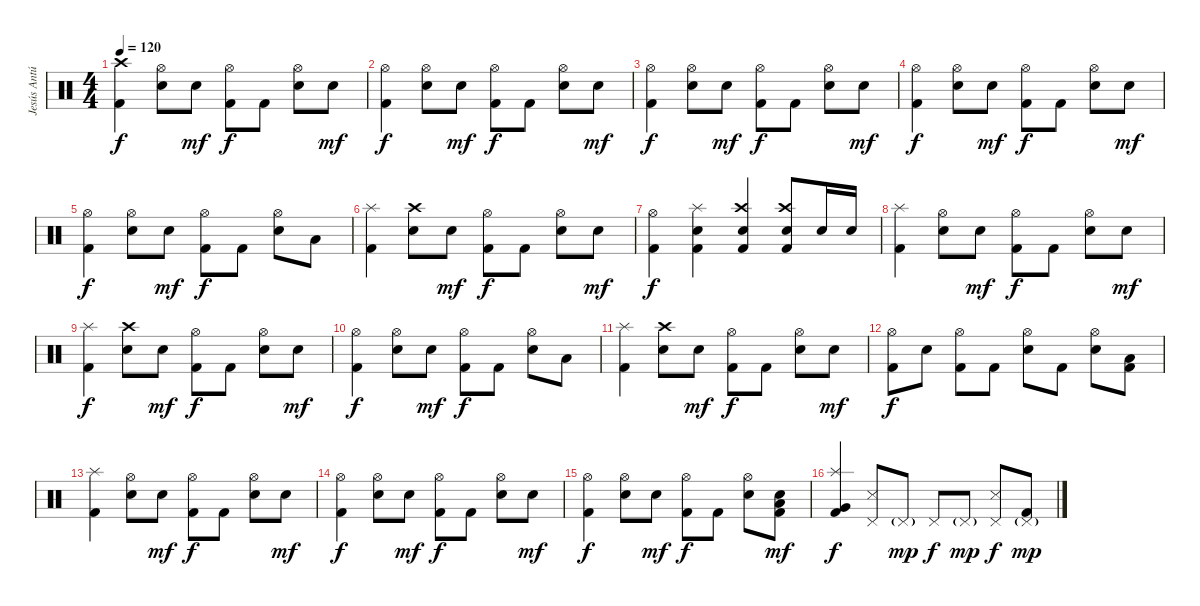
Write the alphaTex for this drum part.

\track ("Jesús Antúnez" "Jesús Antú") {instrument percussion}
\staff {score}
\articulation defaults
\ts (4 4)
\tempo 120
\clef neutral
\ks c
("Kick (hit) 2" "Crash high (hit)").4{dy f} ("Electric Snare (hit)" "Hi-Hat (open)").8 "Electric Snare (hit)".8{dy mf} ("Kick (hit) 2" "Hi-Hat (open)").8{dy f} "Kick (hit) 2".8 ("Electric Snare (hit)" "Hi-Hat (open)").8 "Electric Snare (hit)".8{dy mf} |
("Kick (hit) 2" "Hi-Hat (open)").4{dy f} ("Electric Snare (hit)" "Hi-Hat (open)").8 "Electric Snare (hit)".8{dy mf} ("Kick (hit) 2" "Hi-Hat (open)").8{dy f} "Kick (hit) 2".8 ("Electric Snare (hit)" "Hi-Hat (open)").8 "Electric Snare (hit)".8{dy mf} |
("Kick (hit) 2" "Hi-Hat (open)").4{dy f} ("Electric Snare (hit)" "Hi-Hat (open)").8 "Electric Snare (hit)".8{dy mf} ("Kick (hit) 2" "Hi-Hat (open)").8{dy f} "Kick (hit) 2".8 ("Electric Snare (hit)" "Hi-Hat (open)").8 "Electric Snare (hit)".8{dy mf} |
("Kick (hit) 2" "Hi-Hat (open)").4{dy f} ("Electric Snare (hit)" "Hi-Hat (open)").8 "Electric Snare (hit)".8{dy mf} ("Kick (hit) 2" "Hi-Hat (open)").8{dy f} "Kick (hit) 2".8 ("Electric Snare (hit)" "Hi-Hat (open)").8 "Electric Snare (hit)".8{dy mf} |
("Kick (hit) 2" "Hi-Hat (open)").4{dy f} ("Electric Snare (hit)" "Hi-Hat (open)").8 "Electric Snare (hit)".8{dy mf} ("Kick (hit) 2" "Hi-Hat (open)").8{dy f} "Kick (hit) 2".8 ("Electric Snare (hit)" "Hi-Hat (open)").8 "Low Tom (hit)".8 |
("Kick (hit) 2" "Splash (hit)").4 ("Electric Snare (hit)" "Crash high (hit)").8 "Electric Snare (hit)".8{dy mf} ("Kick (hit) 2" "Hi-Hat (open)").8{dy f} "Kick (hit) 2".8 ("Electric Snare (hit)" "Hi-Hat (open)").8 "Electric Snare (hit)".8{dy mf} |
("Kick (hit) 2" "Hi-Hat (open)").4{dy f} ("Kick (hit) 2" "Electric Snare (hit)" "Splash (hit)").4 ("Kick (hit) 2" "Electric Snare (hit)" "Crash high (hit)").4 ("Kick (hit) 2" "Electric Snare (hit)" "Crash high (hit)").8 "Electric Snare (hit)".16 "Electric Snare (hit)".16 |
("Kick (hit) 2" "Splash (hit)").4 ("Electric Snare (hit)" "Hi-Hat (open)").8 "Electric Snare (hit)".8{dy mf} ("Kick (hit) 2" "Hi-Hat (open)").8{dy f} "Kick (hit) 2".8 ("Electric Snare (hit)" "Hi-Hat (open)").8 "Electric Snare (hit)".8{dy mf} |
("Kick (hit) 2" "Splash (hit)").4{dy f} ("Electric Snare (hit)" "Crash high (hit)").8 "Electric Snare (hit)".8{dy mf} ("Kick (hit) 2" "Hi-Hat (open)").8{dy f} "Kick (hit) 2".8 ("Electric Snare (hit)" "Hi-Hat (open)").8 "Electric Snare (hit)".8{dy mf} |
("Kick (hit) 2" "Hi-Hat (open)").4{dy f} ("Electric Snare (hit)" "Hi-Hat (open)").8 "Electric Snare (hit)".8{dy mf} ("Kick (hit) 2" "Hi-Hat (open)").8{dy f} "Kick (hit) 2".8 ("Electric Snare (hit)" "Hi-Hat (open)").8 "Low Tom (hit)".8 |
("Kick (hit) 2" "Splash (hit)").4 ("Electric Snare (hit)" "Crash high (hit)").8 "Electric Snare (hit)".8{dy mf} ("Kick (hit) 2" "Hi-Hat (open)").8{dy f} "Kick (hit) 2".8 ("Electric Snare (hit)" "Hi-Hat (open)").8 "Electric Snare (hit)".8{dy mf} |
("Kick (hit) 2" "Hi-Hat (open)").8{dy f} "Electric Snare (hit)".8 ("Kick (hit) 2" "Hi-Hat (open)").8 "Kick (hit) 2".8 ("Electric Snare (hit)" "Hi-Hat (open)").8 "Kick (hit) 2".8 ("Electric Snare (hit)" "Hi-Hat (open)").8 ("Kick (hit) 2" "Low Tom (hit)").8 |
("Kick (hit) 2" "Splash (hit)").4 ("Electric Snare (hit)" "Hi-Hat (open)").8 "Electric Snare (hit)".8{dy mf} ("Kick (hit) 2" "Hi-Hat (open)").8{dy f} "Kick (hit) 2".8 ("Electric Snare (hit)" "Hi-Hat (open)").8 "Electric Snare (hit)".8{dy mf} |
("Kick (hit) 2" "Hi-Hat (open)").4{dy f} ("Electric Snare (hit)" "Hi-Hat (open)").8 "Electric Snare (hit)".8{dy mf} ("Kick (hit) 2" "Hi-Hat (open)").8{dy f} "Kick (hit) 2".8 ("Electric Snare (hit)" "Hi-Hat (open)").8 "Electric Snare (hit)".8{dy mf} |
("Kick (hit) 2" "Hi-Hat (open)").4{dy f} ("Electric Snare (hit)" "Hi-Hat (open)").8 "Electric Snare (hit)".8{dy mf} ("Kick (hit) 2" "Hi-Hat (open)").8{dy f} "Kick (hit) 2".8 ("Electric Snare (hit)" "Hi-Hat (open)").8 ("Kick (hit) 2" "Electric Snare (hit)" "Low Tom (hit)").8{dy mf} |
("Kick (hit) 2" "Very Low Tom (hit)" "Splash (hit)").4{dy f} ("Snare (side stick) 3" "Pedal Hi-Hat (hit)").8 "Pedal Hi-Hat (hit)"{g}.8{dy mp} "Pedal Hi-Hat (hit)".8{dy f} "Pedal Hi-Hat (hit)"{g}.8{dy mp} ("Snare (side stick) 3" "Pedal Hi-Hat (hit)").8{dy f} ("Kick (hit) 2" "Pedal Hi-Hat (hit)"{g}).8{dy mp}
